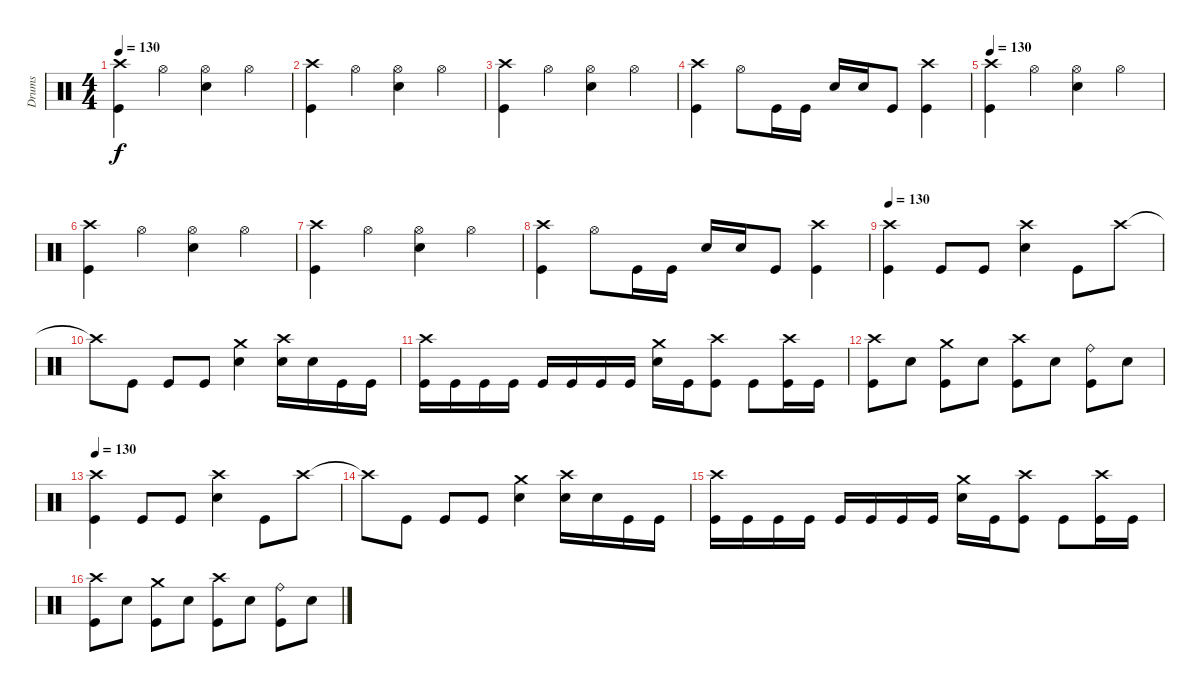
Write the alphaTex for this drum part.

\track ("Drums" "Drums") {solo instrument percussion}
\staff {score}
\articulation defaults
\ts (4 4)
\tempo 130
\clef neutral
\ks c
("Crash high (hit)" "Kick (hit)").4{dy f} "Hi-Hat (open)".4 ("Hi-Hat (open)" "Electric Snare (hit)").4 "Hi-Hat (open)".4 |
("Crash high (hit)" "Kick (hit)").4 "Hi-Hat (open)".4 ("Hi-Hat (open)" "Electric Snare (hit)").4 "Hi-Hat (open)".4 |
("Crash high (hit)" "Kick (hit)").4 "Hi-Hat (open)".4 ("Hi-Hat (open)" "Electric Snare (hit)").4 "Hi-Hat (open)".4 |
("Crash high (hit)" "Kick (hit)").4 "Hi-Hat (open)".8 "Kick (hit)".16 "Kick (hit)".16 "Electric Snare (hit)".16 "Electric Snare (hit)".16 "Kick (hit)".8 ("Crash high (hit)" "Kick (hit)").4 |
\tempo 130
("Crash high (hit)" "Kick (hit)").4 "Hi-Hat (open)".4 ("Hi-Hat (open)" "Electric Snare (hit)").4 "Hi-Hat (open)".4 |
("Crash high (hit)" "Kick (hit)").4 "Hi-Hat (open)".4 ("Hi-Hat (open)" "Electric Snare (hit)").4 "Hi-Hat (open)".4 |
("Crash high (hit)" "Kick (hit)").4 "Hi-Hat (open)".4 ("Hi-Hat (open)" "Electric Snare (hit)").4 "Hi-Hat (open)".4 |
("Crash high (hit)" "Kick (hit)").4 "Hi-Hat (open)".8 "Kick (hit)".16 "Kick (hit)".16 "Electric Snare (hit)".16 "Electric Snare (hit)".16 "Kick (hit)".8 ("Crash high (hit)" "Kick (hit)").4 |
\tempo 140
\tempo 130
("Crash high (hit)" "Kick (hit)").4 "Kick (hit)".8 "Kick (hit)".8 ("Crash high (hit)" "Electric Snare (hit)").4 "Kick (hit)".8 "Crash high (hit)".8 |
"Crash high (hit)"{t}.8 "Kick (hit)".8 "Kick (hit)".8 "Kick (hit)".8 ("Crash medium (hit)" "Electric Snare (hit)").4 ("Crash high (hit)" "Electric Snare (hit)").16 "Electric Snare (hit)".16 "Kick (hit)".16 "Kick (hit)".16 |
("Crash high (hit)" "Kick (hit)").16 "Kick (hit)".16 "Kick (hit)".16 "Kick (hit)".16 "Kick (hit)".16 "Kick (hit)".16 "Kick (hit)".16 "Kick (hit)".16 ("Crash medium (hit)" "Electric Snare (hit)").16 "Kick (hit)".16 ("Crash high (hit)" "Kick (hit)").8 "Kick (hit)".8 ("Crash high (hit)" "Kick (hit)").16 "Kick (hit)".16 |
("Crash high (hit)" "Kick (hit)").8 "Electric Snare (hit)".8 ("Crash medium (hit)" "Kick (hit)").8 "Electric Snare (hit)".8 ("Crash high (hit)" "Kick (hit)").8 "Electric Snare (hit)".8 ("Ride (bell)" "Kick (hit)").8 "Electric Snare (hit)".8 |
\tempo 140
\tempo 130
("Crash high (hit)" "Kick (hit)").4 "Kick (hit)".8 "Kick (hit)".8 ("Crash high (hit)" "Electric Snare (hit)").4 "Kick (hit)".8 "Crash high (hit)".8 |
"Crash high (hit)"{t}.8 "Kick (hit)".8 "Kick (hit)".8 "Kick (hit)".8 ("Crash medium (hit)" "Electric Snare (hit)").4 ("Crash high (hit)" "Electric Snare (hit)").16 "Electric Snare (hit)".16 "Kick (hit)".16 "Kick (hit)".16 |
("Crash high (hit)" "Kick (hit)").16 "Kick (hit)".16 "Kick (hit)".16 "Kick (hit)".16 "Kick (hit)".16 "Kick (hit)".16 "Kick (hit)".16 "Kick (hit)".16 ("Crash medium (hit)" "Electric Snare (hit)").16 "Kick (hit)".16 ("Crash high (hit)" "Kick (hit)").8 "Kick (hit)".8 ("Crash high (hit)" "Kick (hit)").16 "Kick (hit)".16 |
("Crash high (hit)" "Kick (hit)").8 "Electric Snare (hit)".8 ("Crash medium (hit)" "Kick (hit)").8 "Electric Snare (hit)".8 ("Crash high (hit)" "Kick (hit)").8 "Electric Snare (hit)".8 ("Ride (bell)" "Kick (hit)").8 "Electric Snare (hit)".8
